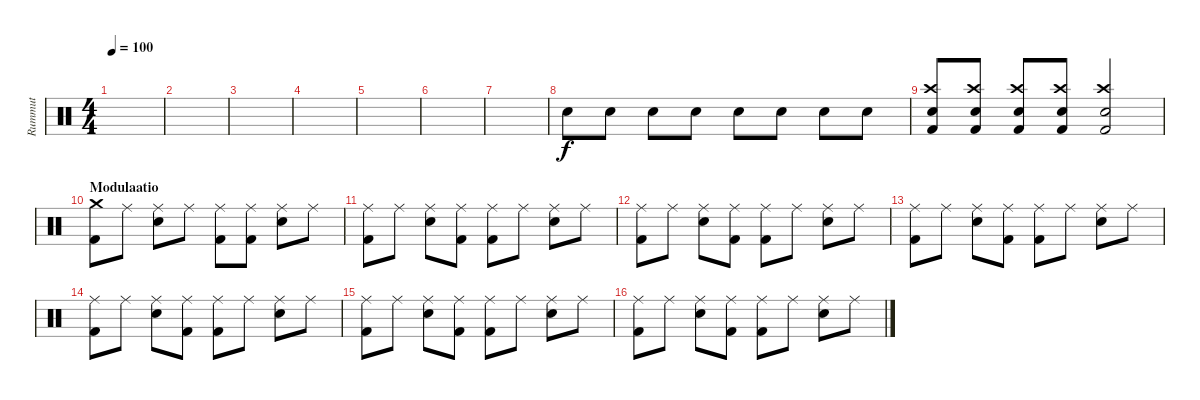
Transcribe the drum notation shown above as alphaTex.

\track ("Rummut" "Rummut") {instrument percussion}
\staff {score}
\articulation defaults
\ts (4 4)
\tempo 100
\clef neutral
\ks c
|
|
|
|
|
|
|
"Snare (hit) 2".8 "Snare (hit) 2".8{volume 5} "Snare (hit) 2".8{volume 6} "Snare (hit) 2".8{volume 7} "Snare (hit) 2".8{volume 8} "Snare (hit) 2".8{volume 9} "Snare (hit) 2".8{volume 10} "Snare (hit) 2".8{volume 11} |
("Crash high (hit)" "Snare (hit) 2" "Kick (hit) 2").8{volume 13} ("Crash high (hit)" "Snare (hit) 2" "Kick (hit) 2").8 ("Crash high (hit)" "Snare (hit) 2" "Kick (hit) 2").8 ("Crash high (hit)" "Snare (hit) 2" "Kick (hit) 2").8 ("Crash high (hit)" "Snare (hit) 2" "Kick (hit) 2").2 |
\section ("" "Modulaatio")
("Crash medium (hit)" "Kick (hit) 2").8 "Ride (middle)".8 ("Ride (middle)" "Snare (hit) 2").8 "Ride (middle)".8 ("Ride (middle)" "Kick (hit) 2").8 ("Ride (middle)" "Kick (hit) 2").8 ("Ride (middle)" "Snare (hit) 2").8 "Ride (middle)".8 |
("Ride (middle)" "Kick (hit) 2").8 "Ride (middle)".8 ("Ride (middle)" "Snare (hit) 2").8 ("Ride (middle)" "Kick (hit) 2").8 ("Ride (middle)" "Kick (hit) 2").8 "Ride (middle)".8 ("Ride (middle)" "Snare (hit) 2").8 "Ride (middle)".8 |
("Ride (middle)" "Kick (hit) 2").8 "Ride (middle)".8 ("Ride (middle)" "Snare (hit) 2").8 ("Ride (middle)" "Kick (hit) 2").8 ("Ride (middle)" "Kick (hit) 2").8 "Ride (middle)".8 ("Ride (middle)" "Snare (hit) 2").8 "Ride (middle)".8 |
("Ride (middle)" "Kick (hit) 2").8 "Ride (middle)".8 ("Ride (middle)" "Snare (hit) 2").8 ("Ride (middle)" "Kick (hit) 2").8 ("Ride (middle)" "Kick (hit) 2").8 "Ride (middle)".8 ("Ride (middle)" "Snare (hit) 2").8 "Ride (middle)".8 |
("Ride (middle)" "Kick (hit) 2").8 "Ride (middle)".8 ("Ride (middle)" "Snare (hit) 2").8 ("Ride (middle)" "Kick (hit) 2").8 ("Ride (middle)" "Kick (hit) 2").8 "Ride (middle)".8 ("Ride (middle)" "Snare (hit) 2").8 "Ride (middle)".8 |
("Ride (middle)" "Kick (hit) 2").8 "Ride (middle)".8 ("Ride (middle)" "Snare (hit) 2").8 ("Ride (middle)" "Kick (hit) 2").8 ("Ride (middle)" "Kick (hit) 2").8 "Ride (middle)".8 ("Ride (middle)" "Snare (hit) 2").8 "Ride (middle)".8 |
("Ride (middle)" "Kick (hit) 2").8 "Ride (middle)".8 ("Ride (middle)" "Snare (hit) 2").8 ("Ride (middle)" "Kick (hit) 2").8 ("Ride (middle)" "Kick (hit) 2").8 "Ride (middle)".8 ("Ride (middle)" "Snare (hit) 2").8 "Ride (middle)".8
